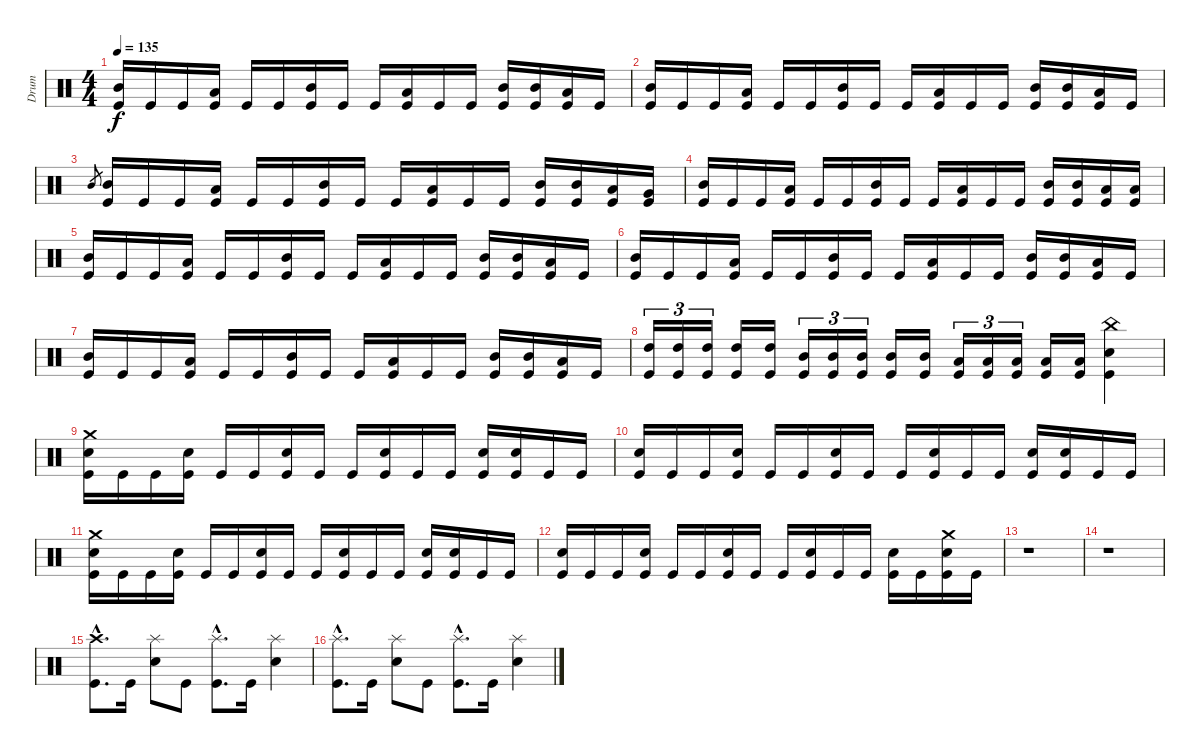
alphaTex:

\track ("Drum" "Drum") {instrument percussion}
\staff {score}
\articulation defaults
\ts (4 4)
\tempo 135
\clef neutral
\ks c
("Kick (hit)" "Mid Tom (hit)").16{dy f} "Kick (hit)".16 "Kick (hit)".16 ("Kick (hit)" "Low Tom (hit)").16 "Kick (hit)".16 "Kick (hit)".16 ("Kick (hit)" "Mid Tom (hit)").16 "Kick (hit)".16 "Kick (hit)".16 ("Kick (hit)" "Low Tom (hit)").16 "Kick (hit)".16 "Kick (hit)".16 ("Kick (hit)" "Mid Tom (hit)").16 ("Kick (hit)" "Mid Tom (hit)").16 ("Kick (hit)" "Low Tom (hit)").16 "Kick (hit)".16 |
("Kick (hit)" "Mid Tom (hit)").16 "Kick (hit)".16 "Kick (hit)".16 ("Kick (hit)" "Low Tom (hit)").16 "Kick (hit)".16 "Kick (hit)".16 ("Kick (hit)" "Mid Tom (hit)").16 "Kick (hit)".16 "Kick (hit)".16 ("Kick (hit)" "Low Tom (hit)").16 "Kick (hit)".16 "Kick (hit)".16 ("Kick (hit)" "Mid Tom (hit)").16 ("Kick (hit)" "Mid Tom (hit)").16 ("Kick (hit)" "Low Tom (hit)").16 "Kick (hit)".16 |
"Mid Tom (hit)".8{gr} ("Kick (hit)" "Mid Tom (hit)").16 "Kick (hit)".16 "Kick (hit)".16 ("Kick (hit)" "Low Tom (hit)").16 "Kick (hit)".16 "Kick (hit)".16 ("Kick (hit)" "Mid Tom (hit)").16 "Kick (hit)".16 "Kick (hit)".16 ("Kick (hit)" "Low Tom (hit)").16 "Kick (hit)".16 "Kick (hit)".16 ("Kick (hit)" "Mid Tom (hit)").16 ("Kick (hit)" "Mid Tom (hit)").16 ("Kick (hit)" "Low Tom (hit)").16 ("Kick (hit)" "Very Low Tom (hit)").16 |
("Kick (hit)" "Mid Tom (hit)").16 "Kick (hit)".16 "Kick (hit)".16 ("Kick (hit)" "Low Tom (hit)").16 "Kick (hit)".16 "Kick (hit)".16 ("Kick (hit)" "Mid Tom (hit)").16 "Kick (hit)".16 "Kick (hit)".16 ("Kick (hit)" "Low Tom (hit)").16 "Kick (hit)".16 "Kick (hit)".16 ("Kick (hit)" "Mid Tom (hit)").16 ("Kick (hit)" "Mid Tom (hit)").16 ("Kick (hit)" "Low Tom (hit)").16 ("Kick (hit)" "Low Tom (hit)").16 |
("Kick (hit)" "Mid Tom (hit)").16 "Kick (hit)".16 "Kick (hit)".16 ("Kick (hit)" "Low Tom (hit)").16 "Kick (hit)".16 "Kick (hit)".16 ("Kick (hit)" "Mid Tom (hit)").16 "Kick (hit)".16 "Kick (hit)".16 ("Kick (hit)" "Low Tom (hit)").16 "Kick (hit)".16 "Kick (hit)".16 ("Kick (hit)" "Mid Tom (hit)").16 ("Kick (hit)" "Mid Tom (hit)").16 ("Kick (hit)" "Low Tom (hit)").16 "Kick (hit)".16 |
("Kick (hit)" "Mid Tom (hit)").16 "Kick (hit)".16 "Kick (hit)".16 ("Kick (hit)" "Low Tom (hit)").16 "Kick (hit)".16 "Kick (hit)".16 ("Kick (hit)" "Mid Tom (hit)").16 "Kick (hit)".16 "Kick (hit)".16 ("Kick (hit)" "Low Tom (hit)").16 "Kick (hit)".16 "Kick (hit)".16 ("Kick (hit)" "Mid Tom (hit)").16 ("Kick (hit)" "Mid Tom (hit)").16 ("Kick (hit)" "Low Tom (hit)").16 "Kick (hit)".16 |
("Kick (hit)" "Mid Tom (hit)").16 "Kick (hit)".16 "Kick (hit)".16 ("Kick (hit)" "Low Tom (hit)").16 "Kick (hit)".16 "Kick (hit)".16 ("Kick (hit)" "Mid Tom (hit)").16 "Kick (hit)".16 "Kick (hit)".16 ("Kick (hit)" "Low Tom (hit)").16 "Kick (hit)".16 "Kick (hit)".16 ("Kick (hit)" "Mid Tom (hit)").16 ("Kick (hit)" "Mid Tom (hit)").16 ("Kick (hit)" "Low Tom (hit)").16 "Kick (hit)".16 |
("Kick (hit)" "High Tom (hit)").16{tu (3 2)} ("Kick (hit)" "High Tom (hit)").16{tu (3 2)} ("Kick (hit)" "High Tom (hit)").16{tu (3 2)} ("Kick (hit)" "High Tom (hit)").16 ("Kick (hit)" "High Tom (hit)").16 ("Kick (hit)" "Mid Tom (hit)").16{tu (3 2)} ("Kick (hit)" "Mid Tom (hit)").16{tu (3 2)} ("Kick (hit)" "Mid Tom (hit)").16{tu (3 2)} ("Kick (hit)" "Mid Tom (hit)").16 ("Kick (hit)" "Mid Tom (hit)").16 ("Kick (hit)" "Low Tom (hit)").16{tu (3 2)} ("Kick (hit)" "Low Tom (hit)").16{tu (3 2)} ("Kick (hit)" "Low Tom (hit)").16{tu (3 2)} ("Kick (hit)" "Low Tom (hit)").16 ("Kick (hit)" "Low Tom (hit)").16 ("Kick (hit)" "Electric Snare (hit)" "China (hit)").4 |
("Kick (hit)" "Electric Snare (hit)" "Crash medium (hit)").16 "Kick (hit)".16 "Kick (hit)".16 ("Kick (hit)" "Electric Snare (hit)").16 "Kick (hit)".16 "Kick (hit)".16 ("Kick (hit)" "Electric Snare (hit)").16 "Kick (hit)".16 "Kick (hit)".16 ("Kick (hit)" "Electric Snare (hit)").16 "Kick (hit)".16 "Kick (hit)".16 ("Kick (hit)" "Electric Snare (hit)").16 ("Kick (hit)" "Electric Snare (hit)").16 "Kick (hit)".16 "Kick (hit)".16 |
("Kick (hit)" "Electric Snare (hit)").16 "Kick (hit)".16 "Kick (hit)".16 ("Kick (hit)" "Electric Snare (hit)").16 "Kick (hit)".16 "Kick (hit)".16 ("Kick (hit)" "Electric Snare (hit)").16 "Kick (hit)".16 "Kick (hit)".16 ("Kick (hit)" "Electric Snare (hit)").16 "Kick (hit)".16 "Kick (hit)".16 ("Kick (hit)" "Electric Snare (hit)").16 ("Kick (hit)" "Electric Snare (hit)").16 "Kick (hit)".16 "Kick (hit)".16 |
("Kick (hit)" "Electric Snare (hit)" "Crash medium (hit)").16 "Kick (hit)".16 "Kick (hit)".16 ("Kick (hit)" "Electric Snare (hit)").16 "Kick (hit)".16 "Kick (hit)".16 ("Kick (hit)" "Electric Snare (hit)").16 "Kick (hit)".16 "Kick (hit)".16 ("Kick (hit)" "Electric Snare (hit)").16 "Kick (hit)".16 "Kick (hit)".16 ("Kick (hit)" "Electric Snare (hit)").16 ("Kick (hit)" "Electric Snare (hit)").16 "Kick (hit)".16 "Kick (hit)".16 |
("Kick (hit)" "Electric Snare (hit)").16 "Kick (hit)".16 "Kick (hit)".16 ("Kick (hit)" "Electric Snare (hit)").16 "Kick (hit)".16 "Kick (hit)".16 ("Kick (hit)" "Electric Snare (hit)").16 "Kick (hit)".16 "Kick (hit)".16 ("Kick (hit)" "Electric Snare (hit)").16 "Kick (hit)".16 "Kick (hit)".16 ("Kick (hit)" "Electric Snare (hit)").16 "Kick (hit)".16 ("Kick (hit)" "Electric Snare (hit)" "Crash medium (hit)").16 "Kick (hit)".16 |
r.1 |
r.1 |
("Kick (hit)"{hac} "Crash high (hit)"{hac}).8{d} "Kick (hit)".16 ("Electric Snare (hit)" "Splash (hit)").8 "Kick (hit)".8 ("Kick (hit)"{hac} "Splash (hit)"{hac}).8{d} "Kick (hit)".16 ("Electric Snare (hit)" "Splash (hit)").4 |
("Kick (hit)"{hac} "Splash (hit)"{hac}).8{d} "Kick (hit)".16 ("Electric Snare (hit)" "Splash (hit)").8 "Kick (hit)".8 ("Kick (hit)"{hac} "Splash (hit)"{hac}).8{d} "Kick (hit)".16 ("Electric Snare (hit)" "Splash (hit)").4
